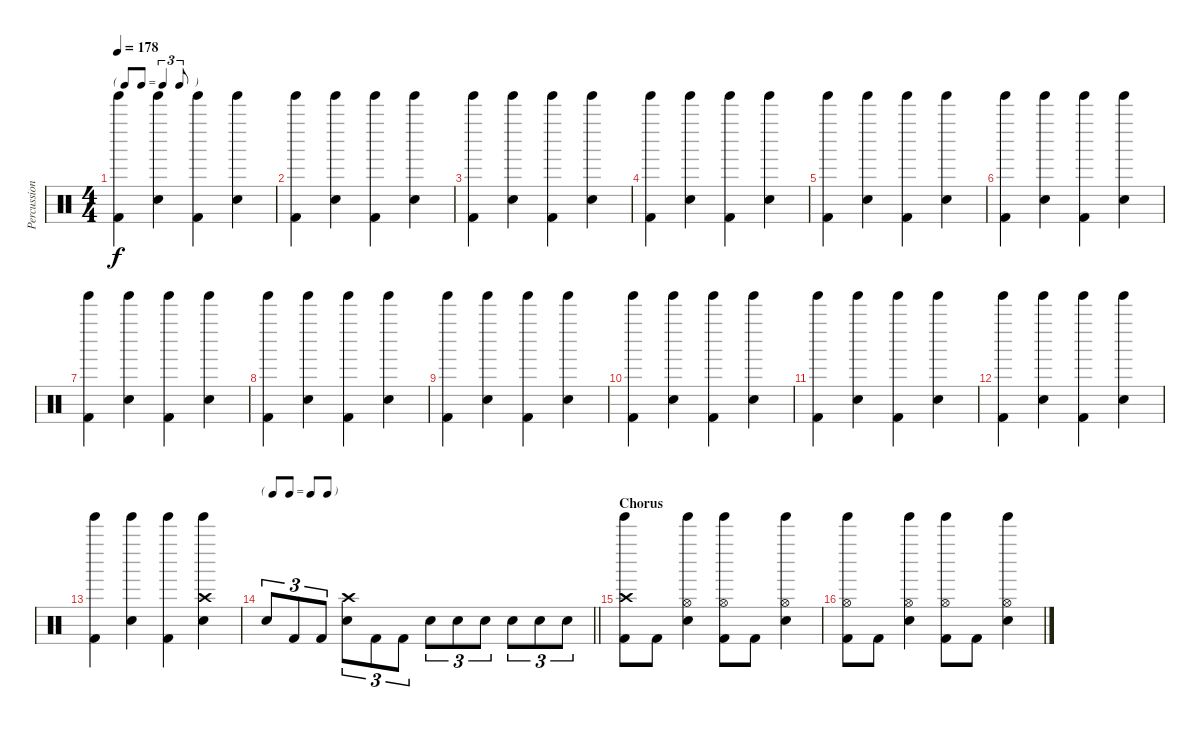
\track ("Percussion" "Percussion") {instrument percussion}
\staff {score}
\articulation defaults
\ts (4 4)
\tf triplet8th
\tempo 178
\clef neutral
\ks c
("Tinkle Bell (hit)" "Kick (hit) 2").4{dy f} ("Tinkle Bell (hit)" "Snare (hit) 2").4 ("Tinkle Bell (hit)" "Kick (hit) 2").4 ("Tinkle Bell (hit)" "Snare (hit) 2").4 |
("Tinkle Bell (hit)" "Kick (hit) 2").4 ("Tinkle Bell (hit)" "Snare (hit) 2").4 ("Tinkle Bell (hit)" "Kick (hit) 2").4 ("Tinkle Bell (hit)" "Snare (hit) 2").4 |
("Tinkle Bell (hit)" "Kick (hit) 2").4 ("Tinkle Bell (hit)" "Snare (hit) 2").4 ("Tinkle Bell (hit)" "Kick (hit) 2").4 ("Tinkle Bell (hit)" "Snare (hit) 2").4 |
("Tinkle Bell (hit)" "Kick (hit) 2").4 ("Tinkle Bell (hit)" "Snare (hit) 2").4 ("Tinkle Bell (hit)" "Kick (hit) 2").4 ("Tinkle Bell (hit)" "Snare (hit) 2").4 |
("Tinkle Bell (hit)" "Kick (hit) 2").4 ("Tinkle Bell (hit)" "Snare (hit) 2").4 ("Tinkle Bell (hit)" "Kick (hit) 2").4 ("Tinkle Bell (hit)" "Snare (hit) 2").4 |
("Tinkle Bell (hit)" "Kick (hit) 2").4 ("Tinkle Bell (hit)" "Snare (hit) 2").4 ("Tinkle Bell (hit)" "Kick (hit) 2").4 ("Tinkle Bell (hit)" "Snare (hit) 2").4 |
("Tinkle Bell (hit)" "Kick (hit) 2").4 ("Tinkle Bell (hit)" "Snare (hit) 2").4 ("Tinkle Bell (hit)" "Kick (hit) 2").4 ("Tinkle Bell (hit)" "Snare (hit) 2").4 |
("Tinkle Bell (hit)" "Kick (hit) 2").4 ("Tinkle Bell (hit)" "Snare (hit) 2").4 ("Tinkle Bell (hit)" "Kick (hit) 2").4 ("Tinkle Bell (hit)" "Snare (hit) 2").4 |
("Tinkle Bell (hit)" "Kick (hit) 2").4 ("Tinkle Bell (hit)" "Snare (hit) 2").4 ("Tinkle Bell (hit)" "Kick (hit) 2").4 ("Tinkle Bell (hit)" "Snare (hit) 2").4 |
("Tinkle Bell (hit)" "Kick (hit) 2").4 ("Tinkle Bell (hit)" "Snare (hit) 2").4 ("Tinkle Bell (hit)" "Kick (hit) 2").4 ("Tinkle Bell (hit)" "Snare (hit) 2").4 |
("Tinkle Bell (hit)" "Kick (hit) 2").4 ("Tinkle Bell (hit)" "Snare (hit) 2").4 ("Tinkle Bell (hit)" "Kick (hit) 2").4 ("Tinkle Bell (hit)" "Snare (hit) 2").4 |
("Tinkle Bell (hit)" "Kick (hit) 2").4 ("Tinkle Bell (hit)" "Snare (hit) 2").4 ("Tinkle Bell (hit)" "Kick (hit) 2").4 ("Tinkle Bell (hit)" "Snare (hit) 2").4 |
("Tinkle Bell (hit)" "Kick (hit) 2").4 ("Tinkle Bell (hit)" "Snare (hit) 2").4 ("Tinkle Bell (hit)" "Kick (hit) 2").4 ("Crash high (hit)" "Tinkle Bell (hit)" "Snare (hit) 2").4 |
\tf none
\barLineRight lightlight "Snare (hit) 2".8{tu (3 2)} "Kick (hit) 2".8{tu (3 2)} "Kick (hit) 2".8{tu (3 2)}
("Crash high (hit)" "Snare (hit) 2").8{tu (3 2)} "Kick (hit) 2".8{tu (3 2)} "Kick (hit) 2".8{tu (3 2)} "Snare (hit) 2".8{tu (3 2)} "Snare (hit) 2".8{tu (3 2)} "Snare (hit) 2".8{tu (3 2)} "Snare (hit) 2".8{tu (3 2)} "Snare (hit) 2".8{tu (3 2)} "Snare (hit) 2".8{tu (3 2)} |
\section ("" "Chorus")
("Crash high (hit)" "Tinkle Bell (hit)" "Kick (hit) 2").8 "Kick (hit) 2".8 ("Hi-Hat (open)" "Tinkle Bell (hit)" "Snare (hit) 2").4 ("Hi-Hat (open)" "Tinkle Bell (hit)" "Kick (hit) 2").8 "Kick (hit) 2".8 ("Hi-Hat (open)" "Tinkle Bell (hit)" "Snare (hit) 2").4 |
("Hi-Hat (open)" "Tinkle Bell (hit)" "Kick (hit) 2").8 "Kick (hit) 2".8 ("Hi-Hat (open)" "Tinkle Bell (hit)" "Snare (hit) 2").4 ("Hi-Hat (open)" "Tinkle Bell (hit)" "Kick (hit) 2").8 "Kick (hit) 2".8 ("Hi-Hat (open)" "Tinkle Bell (hit)" "Snare (hit) 2").4
